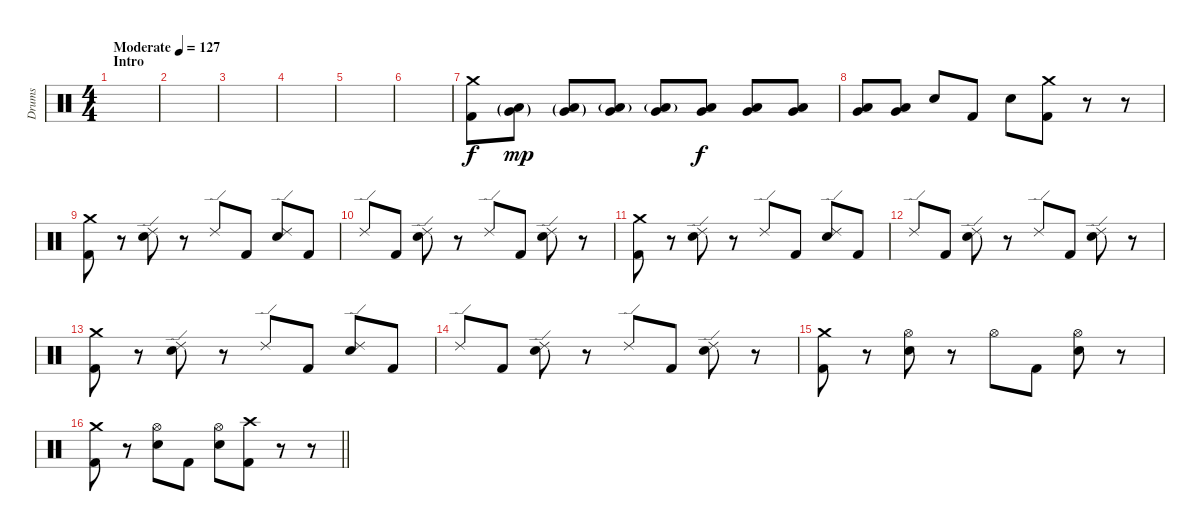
\track ("Drums" "Drums") {instrument percussion}
\staff {score}
\articulation defaults
\ts (4 4)
\section ("" "Intro")
\tempo (127 "Moderate")
\clef neutral
\ks c
|
|
|
|
|
|
("Crash medium (hit)" "Kick (hit) 2").8{volume 11} ("Very Low Tom (hit)"{g} "Low Floor Tom (hit)"{g}).8{dy mp} ("Very Low Tom (hit)"{g} "Low Floor Tom (hit)"{g}).8 ("Very Low Tom (hit)" "Low Floor Tom (hit)"{g}).8 ("Very Low Tom (hit)" "Low Floor Tom (hit)"{g}).8 ("Very Low Tom (hit)" "Low Floor Tom (hit)").8{dy f} ("Very Low Tom (hit)" "Low Floor Tom (hit)").8 ("Very Low Tom (hit)" "Low Floor Tom (hit)").8 |
("Very Low Tom (hit)" "Low Floor Tom (hit)").8 ("Very Low Tom (hit)" "Low Floor Tom (hit)").8 "Electric Snare (hit)".8 "Kick (hit) 2".8 "Electric Snare (hit)".8 ("Crash medium (hit)" "Kick (hit) 2").8 r.8 r.8 |
("Crash medium (hit)" "Kick (hit) 2").8 r.8 ("Ride (edge) 2" "Electric Snare (hit)").8 r.8 "Ride (edge) 2".8 "Kick (hit) 2".8 ("Ride (edge) 2" "Electric Snare (hit)").8 "Kick (hit) 2".8 |
"Ride (edge) 2".8 "Kick (hit) 2".8 ("Ride (edge) 2" "Electric Snare (hit)").8 r.8 "Ride (edge) 2".8 "Kick (hit) 2".8 ("Ride (edge) 2" "Electric Snare (hit)").8 r.8 |
("Crash medium (hit)" "Kick (hit) 2").8 r.8 ("Ride (edge) 2" "Electric Snare (hit)").8 r.8 "Ride (edge) 2".8 "Kick (hit) 2".8 ("Ride (edge) 2" "Electric Snare (hit)").8 "Kick (hit) 2".8 |
"Ride (edge) 2".8 "Kick (hit) 2".8 ("Ride (edge) 2" "Electric Snare (hit)").8 r.8 "Ride (edge) 2".8 "Kick (hit) 2".8 ("Ride (edge) 2" "Electric Snare (hit)").8 r.8 |
("Crash medium (hit)" "Kick (hit) 2").8 r.8 ("Ride (edge) 2" "Electric Snare (hit)").8 r.8 "Ride (edge) 2".8 "Kick (hit) 2".8 ("Ride (edge) 2" "Electric Snare (hit)").8 "Kick (hit) 2".8 |
"Ride (edge) 2".8 "Kick (hit) 2".8 ("Ride (edge) 2" "Electric Snare (hit)").8 r.8 "Ride (edge) 2".8 "Kick (hit) 2".8 ("Ride (edge) 2" "Electric Snare (hit)").8 r.8 |
("Crash medium (hit)" "Kick (hit) 2").8 r.8 ("Hi-Hat (open)" "Electric Snare (hit)").8 r.8 "Hi-Hat (open)".8 "Kick (hit) 2".8 ("Hi-Hat (open)" "Electric Snare (hit)").8 r.8 |
\barLineRight lightlight
("Crash medium (hit)" "Kick (hit) 2").8 r.8 ("Hi-Hat (open)" "Electric Snare (hit)").8 "Kick (hit) 2".8 ("Hi-Hat (open)" "Electric Snare (hit)").8 ("Crash high (hit)" "Kick (hit) 2").8 r.8 r.8
